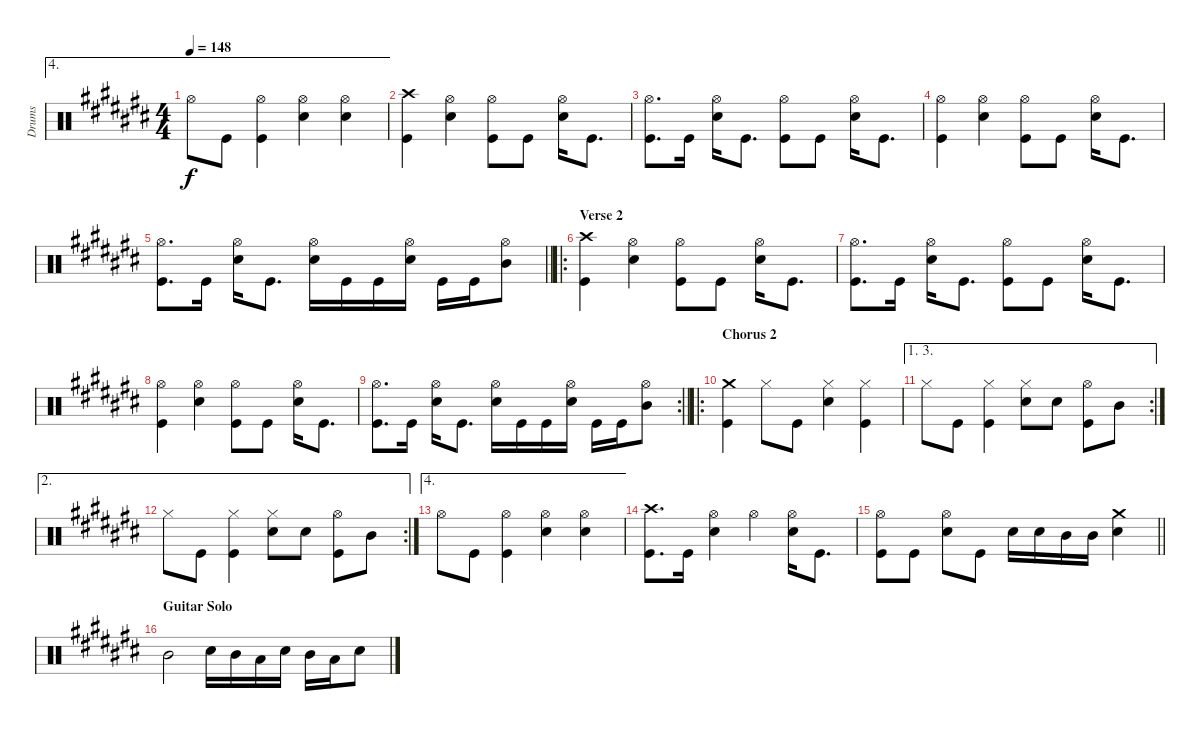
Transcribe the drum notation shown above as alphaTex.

\track ("Drums" "Drums") {instrument percussion}
\staff {score}
\articulation defaults
\ae 4
\ts (4 4)
\tempo 148
\clef neutral
\ks c# "Hi-Hat (open)".8{dy f} "Kick (hit)".8
("Hi-Hat (open)" "Kick (hit)").4 ("Hi-Hat (open)" "Snare (hit) 2").4 ("Hi-Hat (open)" "Snare (hit) 2").4 |
("Crash high (hit)" "Kick (hit)").4 ("Hi-Hat (open)" "Snare (hit) 2").4 ("Hi-Hat (open)" "Kick (hit)").8 "Kick (hit)".8 ("Hi-Hat (open)" "Snare (hit) 2").16 "Kick (hit)".8{d} |
("Hi-Hat (open)" "Kick (hit)").8{d} "Kick (hit)".16 ("Hi-Hat (open)" "Snare (hit) 2").16 "Kick (hit)".8{d} ("Hi-Hat (open)" "Kick (hit)").8 "Kick (hit)".8 ("Hi-Hat (open)" "Snare (hit) 2").16 "Kick (hit)".8{d} |
("Hi-Hat (open)" "Kick (hit)").4 ("Hi-Hat (open)" "Snare (hit) 2").4 ("Hi-Hat (open)" "Kick (hit)").8 "Kick (hit)".8 ("Hi-Hat (open)" "Snare (hit) 2").16 "Kick (hit)".8{d} |
\barLineRight lightlight
("Hi-Hat (open)" "Kick (hit)").8{d} "Kick (hit)".16 ("Hi-Hat (open)" "Snare (hit) 2").16 "Kick (hit)".8{d} ("Hi-Hat (open)" "Snare (hit) 2").16 "Kick (hit)".16 "Kick (hit)".16 ("Hi-Hat (open)" "Snare (hit) 2").16 "Kick (hit)".16 "Kick (hit)".16 ("Hi-Hat (open)" "Mid Tom (hit)").8 |
\ro
\section ("" "Verse 2")
("Crash high (hit)" "Kick (hit)").4 ("Hi-Hat (open)" "Snare (hit) 2").4 ("Hi-Hat (open)" "Kick (hit)").8 "Kick (hit)".8 ("Hi-Hat (open)" "Snare (hit) 2").16 "Kick (hit)".8{d} |
("Hi-Hat (open)" "Kick (hit)").8{d} "Kick (hit)".16 ("Hi-Hat (open)" "Snare (hit) 2").16 "Kick (hit)".8{d} ("Hi-Hat (open)" "Kick (hit)").8 "Kick (hit)".8 ("Hi-Hat (open)" "Snare (hit) 2").16 "Kick (hit)".8{d} |
("Hi-Hat (open)" "Kick (hit)").4 ("Hi-Hat (open)" "Snare (hit) 2").4 ("Hi-Hat (open)" "Kick (hit)").8 "Kick (hit)".8 ("Hi-Hat (open)" "Snare (hit) 2").16 "Kick (hit)".8{d} |
\rc 2
\barLineRight lightlight
("Hi-Hat (open)" "Kick (hit)").8{d} "Kick (hit)".16 ("Hi-Hat (open)" "Snare (hit) 2").16 "Kick (hit)".8{d} ("Hi-Hat (open)" "Snare (hit) 2").16 "Kick (hit)".16 "Kick (hit)".16 ("Hi-Hat (open)" "Snare (hit) 2").16 "Kick (hit)".16 "Kick (hit)".16 ("Hi-Hat (open)" "Mid Tom (hit)").8 |
\ro
\section ("" "Chorus 2")
("Crash medium (hit)" "Kick (hit)").4 "Hi-Hat (closed)".8 "Kick (hit)".8 ("Hi-Hat (closed)" "Snare (hit) 2").4 ("Hi-Hat (closed)" "Kick (hit)").4 |
\ae (1 3)
\rc 2 "Hi-Hat (closed)".8 "Kick (hit)".8
("Hi-Hat (closed)" "Kick (hit)").4 ("Hi-Hat (closed)" "Snare (hit) 2").8 "Snare (hit) 2".8 ("Hi-Hat (open)" "Kick (hit)").8 "Mid Tom (hit)".8 |
\ae 2
\rc 2 "Hi-Hat (closed)".8 "Kick (hit)".8
("Hi-Hat (closed)" "Kick (hit)").4 ("Hi-Hat (closed)" "Snare (hit) 2").8 "Snare (hit) 2".8 ("Hi-Hat (open)" "Kick (hit)").8 "Mid Tom (hit)".8 |
\ae 4 "Hi-Hat (open)".8 "Kick (hit)".8
("Hi-Hat (open)" "Kick (hit)").4 ("Hi-Hat (open)" "Snare (hit) 2").4 ("Hi-Hat (open)" "Snare (hit) 2").4 |
("Crash high (hit)" "Kick (hit)").8{d} "Kick (hit)".16 ("Hi-Hat (open)" "Snare (hit) 2").4 "Hi-Hat (open)".4 ("Hi-Hat (open)" "Snare (hit) 2").16 "Kick (hit)".8{d} |
\barLineRight lightlight
("Hi-Hat (open)" "Kick (hit)").8 "Kick (hit)".8 ("Hi-Hat (open)" "Snare (hit) 2").8 "Kick (hit)".8 "Snare (hit) 2".16 "Snare (hit) 2".16 "Mid Tom (hit)".16 "Mid Tom (hit)".16 ("Crash medium (hit)" "Snare (hit) 2").4 |
\section ("" "Guitar Solo")
"Mid Tom (hit)".2 "Snare (hit) 2".16 "Mid Tom (hit)".16 "Low Tom (hit)".16 "Snare (hit) 2".16 "Mid Tom (hit)".16 "Low Tom (hit)".16 "Snare (hit) 2".8
